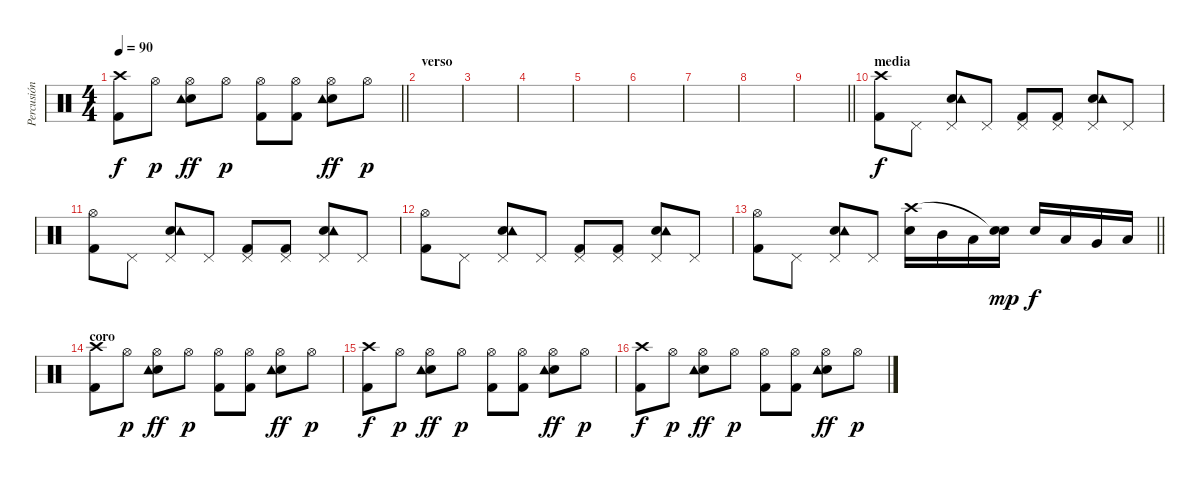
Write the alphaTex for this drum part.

\track ("Percusión" "Percusión") {instrument percussion}
\staff {score}
\articulation defaults
\ts (4 4)
\tempo 90
\clef neutral
\barLineRight lightlight
\ks c
("Crash high (hit)" "Kick (hit) 2").8{dy f} "Hi-Hat (open)".8{dy p} ("Hi-Hat (open)" "Snare (hit) 2" "Tambourine (hit)").8{dy ff} "Hi-Hat (open)".8{dy p} ("Hi-Hat (open)" "Kick (hit) 2").8 ("Hi-Hat (open)" "Kick (hit) 2").8 ("Hi-Hat (open)" "Snare (hit) 2" "Tambourine (hit)").8{dy ff} "Hi-Hat (open)".8{dy p} |
\section ("" "verso")
|
|
|
|
|
|
|
\barLineRight lightlight
|
\section ("" "media")
("Crash high (hit)" "Kick (hit) 2").8{dy f} "Pedal Hi-Hat (hit)".8 ("Pedal Hi-Hat (hit)" "Snare (hit) 2" "Tambourine (hit)").8 "Pedal Hi-Hat (hit)".8 ("Pedal Hi-Hat (hit)" "Kick (hit) 2").8 ("Pedal Hi-Hat (hit)" "Kick (hit) 2").8 ("Pedal Hi-Hat (hit)" "Snare (hit) 2" "Tambourine (hit)").8 "Pedal Hi-Hat (hit)".8 |
("Hi-Hat (open)" "Kick (hit) 2").8 "Pedal Hi-Hat (hit)".8 ("Pedal Hi-Hat (hit)" "Snare (hit) 2" "Tambourine (hit)").8 "Pedal Hi-Hat (hit)".8 ("Pedal Hi-Hat (hit)" "Kick (hit) 2").8 ("Pedal Hi-Hat (hit)" "Kick (hit) 2").8 ("Pedal Hi-Hat (hit)" "Snare (hit) 2" "Tambourine (hit)").8 "Pedal Hi-Hat (hit)".8 |
("Hi-Hat (open)" "Kick (hit) 2").8 "Pedal Hi-Hat (hit)".8 ("Pedal Hi-Hat (hit)" "Snare (hit) 2" "Tambourine (hit)").8 "Pedal Hi-Hat (hit)".8 ("Pedal Hi-Hat (hit)" "Kick (hit) 2").8 ("Pedal Hi-Hat (hit)" "Kick (hit) 2").8 ("Pedal Hi-Hat (hit)" "Snare (hit) 2" "Tambourine (hit)").8 "Pedal Hi-Hat (hit)".8 |
\barLineRight lightlight
("Hi-Hat (open)" "Kick (hit) 2").8 "Pedal Hi-Hat (hit)".8 ("Pedal Hi-Hat (hit)" "Snare (hit) 2" "Tambourine (hit)").8 "Pedal Hi-Hat (hit)".8 ("Snare (hit) 2" "Crash high (hit)").16 "Mid Tom (hit)".16 "Low Tom (hit)".16 ("Snare (hit) 2" "Snare (hit)"{t}).16{dy mp} "Snare (hit) 2".16{dy f} "Low Tom (hit)".16 "Very Low Tom (hit)".16 "Low Floor Tom (hit)".16 |
\section ("" "coro")
("Crash high (hit)" "Kick (hit) 2").8 "Hi-Hat (open)".8{dy p} ("Hi-Hat (open)" "Snare (hit) 2" "Tambourine (hit)").8{dy ff} "Hi-Hat (open)".8{dy p} ("Hi-Hat (open)" "Kick (hit) 2").8 ("Hi-Hat (open)" "Kick (hit) 2").8 ("Hi-Hat (open)" "Snare (hit) 2" "Tambourine (hit)").8{dy ff} "Hi-Hat (open)".8{dy p} |
("Crash high (hit)" "Kick (hit) 2").8{dy f} "Hi-Hat (open)".8{dy p} ("Hi-Hat (open)" "Snare (hit) 2" "Tambourine (hit)").8{dy ff} "Hi-Hat (open)".8{dy p} ("Hi-Hat (open)" "Kick (hit) 2").8 ("Hi-Hat (open)" "Kick (hit) 2").8 ("Hi-Hat (open)" "Snare (hit) 2" "Tambourine (hit)").8{dy ff} "Hi-Hat (open)".8{dy p} |
("Crash high (hit)" "Kick (hit) 2").8{dy f} "Hi-Hat (open)".8{dy p} ("Hi-Hat (open)" "Snare (hit) 2" "Tambourine (hit)").8{dy ff} "Hi-Hat (open)".8{dy p} ("Hi-Hat (open)" "Kick (hit) 2").8 ("Hi-Hat (open)" "Kick (hit) 2").8 ("Hi-Hat (open)" "Snare (hit) 2" "Tambourine (hit)").8{dy ff} "Hi-Hat (open)".8{dy p}
